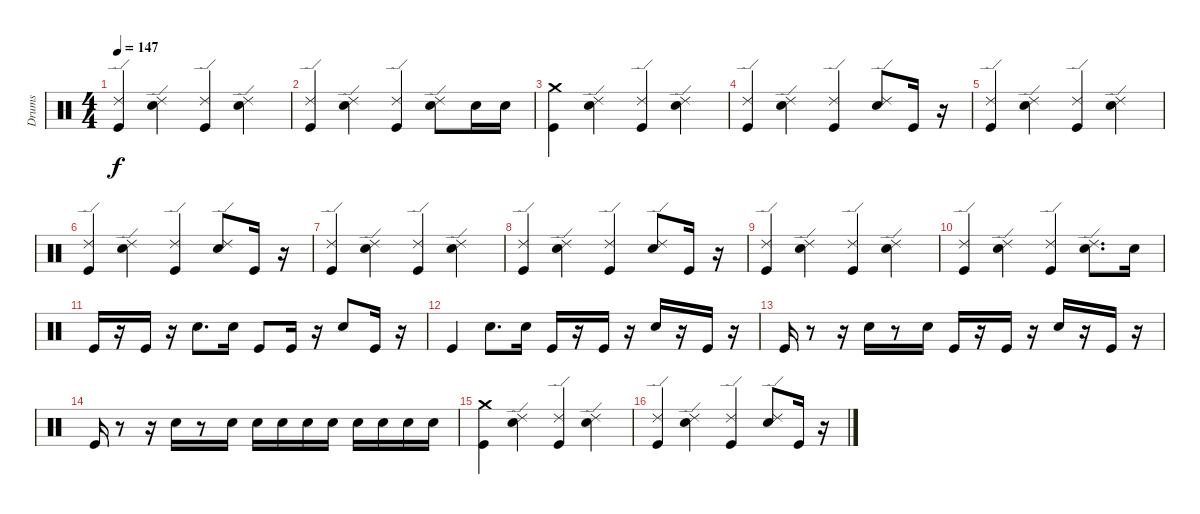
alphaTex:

\track ("Drums" "Drums") {instrument percussion}
\staff {score}
\articulation defaults
\ts (4 4)
\tempo 147
\clef neutral
\ks c
("Ride (edge) 2" "Kick (hit)").4{dy f} ("Ride (edge) 2" "Snare (hit) 2").4 ("Ride (edge) 2" "Kick (hit)").4 ("Ride (edge) 2" "Snare (hit) 2").4 |
("Ride (edge) 2" "Kick (hit)").4 ("Ride (edge) 2" "Snare (hit) 2").4 ("Ride (edge) 2" "Kick (hit)").4 ("Ride (edge) 2" "Snare (hit) 2").8 "Snare (hit) 2".16 "Snare (hit) 2".16 |
("Crash medium (hit)" "Kick (hit)").4 ("Ride (edge) 2" "Snare (hit) 2").4 ("Ride (edge) 2" "Kick (hit)").4 ("Ride (edge) 2" "Snare (hit) 2").4 |
("Ride (edge) 2" "Kick (hit)").4 ("Ride (edge) 2" "Snare (hit) 2").4 ("Ride (edge) 2" "Kick (hit)").4 ("Ride (edge) 2" "Snare (hit) 2").8 "Kick (hit)".16 r.16 |
("Ride (edge) 2" "Kick (hit)").4 ("Ride (edge) 2" "Snare (hit) 2").4 ("Ride (edge) 2" "Kick (hit)").4 ("Ride (edge) 2" "Snare (hit) 2").4 |
("Ride (edge) 2" "Kick (hit)").4 ("Ride (edge) 2" "Snare (hit) 2").4 ("Ride (edge) 2" "Kick (hit)").4 ("Ride (edge) 2" "Snare (hit) 2").8 "Kick (hit)".16 r.16 |
("Ride (edge) 2" "Kick (hit)").4 ("Ride (edge) 2" "Snare (hit) 2").4 ("Ride (edge) 2" "Kick (hit)").4 ("Ride (edge) 2" "Snare (hit) 2").4 |
("Ride (edge) 2" "Kick (hit)").4 ("Ride (edge) 2" "Snare (hit) 2").4 ("Ride (edge) 2" "Kick (hit)").4 ("Ride (edge) 2" "Snare (hit) 2").8 "Kick (hit)".16 r.16 |
("Ride (edge) 2" "Kick (hit)").4 ("Ride (edge) 2" "Snare (hit) 2").4 ("Ride (edge) 2" "Kick (hit)").4 ("Ride (edge) 2" "Snare (hit) 2").4 |
("Ride (edge) 2" "Kick (hit)").4 ("Ride (edge) 2" "Snare (hit) 2").4 ("Ride (edge) 2" "Kick (hit)").4 ("Ride (edge) 2" "Snare (hit) 2").8{d} "Snare (hit) 2".16 |
"Kick (hit)".16 r.16 "Kick (hit)".16 r.16 "Snare (hit) 2".8{d} "Snare (hit) 2".16 "Kick (hit)".8 "Kick (hit)".16 r.16 "Snare (hit) 2".8 "Kick (hit)".16 r.16 |
"Kick (hit)".4 "Snare (hit) 2".8{d} "Snare (hit) 2".16 "Kick (hit)".16 r.16 "Kick (hit)".16 r.16 "Snare (hit) 2".16 r.16 "Kick (hit)".16 r.16 |
"Kick (hit)".16 r.8 r.16 "Snare (hit) 2".16 r.8 "Snare (hit) 2".16 "Kick (hit)".16 r.16 "Kick (hit)".16 r.16 "Snare (hit) 2".16 r.16 "Kick (hit)".16 r.16 |
"Kick (hit)".16 r.8 r.16 "Snare (hit) 2".16 r.8 "Snare (hit) 2".16 "Snare (hit) 2".16 "Snare (hit) 2".16 "Snare (hit) 2".16 "Snare (hit) 2".16 "Snare (hit) 2".16 "Snare (hit) 2".16 "Snare (hit) 2".16 "Snare (hit) 2".16 |
("Crash medium (hit)" "Kick (hit)").4 ("Ride (edge) 2" "Snare (hit) 2").4 ("Ride (edge) 2" "Kick (hit)").4 ("Ride (edge) 2" "Snare (hit) 2").4 |
("Ride (edge) 2" "Kick (hit)").4 ("Ride (edge) 2" "Snare (hit) 2").4 ("Ride (edge) 2" "Kick (hit)").4 ("Ride (edge) 2" "Snare (hit) 2").8 "Kick (hit)".16 r.16
